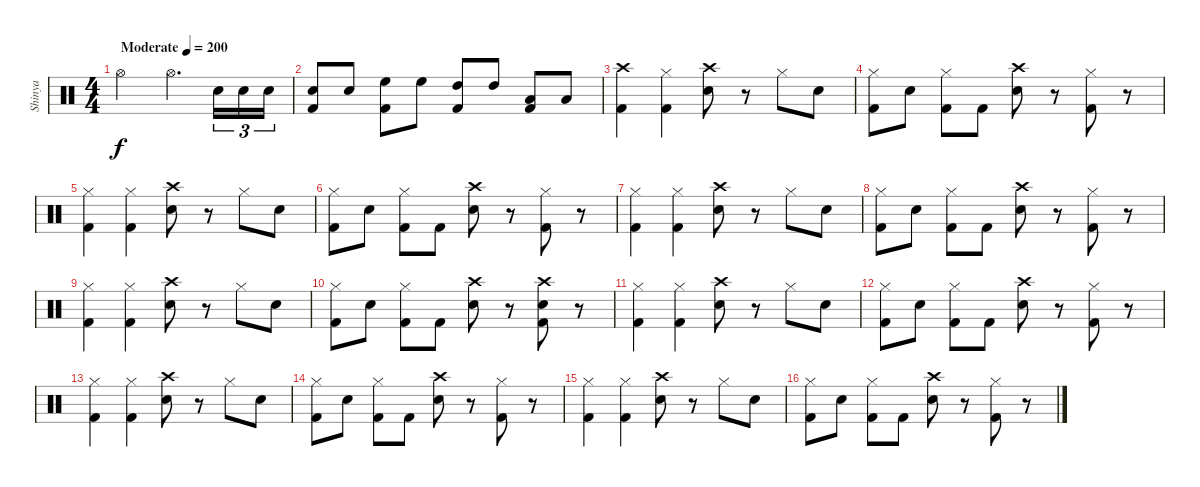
\track ("Shinya" "Shinya") {instrument percussion}
\staff {score}
\articulation defaults
\ts (4 4)
\tempo (200 "Moderate")
\clef neutral
\ks c "Hi-Hat (open)".2{dy f} "Hi-Hat (open)".4{d} "Electric Snare (hit)".16{tu (3 2)} "Electric Snare (hit)".16{tu (3 2)} "Electric Snare (hit)".16{tu (3 2)}
|
("Electric Snare (hit)" "Kick (hit) 2").8 "Electric Snare (hit)".8 ("High Floor Tom (hit)" "Kick (hit) 2").8 "High Floor Tom (hit)".8 ("High Tom (hit)" "Kick (hit) 2").8 "High Tom (hit)".8 ("Low Tom (hit)" "Kick (hit) 2").8 "Low Tom (hit)".8 |
("Crash high (hit)" "Kick (hit) 2").4 ("Hi-Hat (closed)" "Kick (hit) 2").4 ("Crash high (hit)" "Electric Snare (hit)").8 r.8 "Hi-Hat (closed)".8 "Electric Snare (hit)".8 |
("Hi-Hat (closed)" "Kick (hit) 2").8 "Electric Snare (hit)".8 ("Hi-Hat (closed)" "Kick (hit) 2").8 "Kick (hit) 2".8 ("Crash high (hit)" "Electric Snare (hit)").8 r.8 ("Hi-Hat (closed)" "Kick (hit) 2").8 r.8 |
("Hi-Hat (closed)" "Kick (hit) 2").4 ("Hi-Hat (closed)" "Kick (hit) 2").4 ("Crash high (hit)" "Electric Snare (hit)").8 r.8 "Hi-Hat (closed)".8 "Electric Snare (hit)".8 |
("Hi-Hat (closed)" "Kick (hit) 2").8 "Electric Snare (hit)".8 ("Hi-Hat (closed)" "Kick (hit) 2").8 "Kick (hit) 2".8 ("Crash high (hit)" "Electric Snare (hit)").8 r.8 ("Hi-Hat (closed)" "Kick (hit) 2").8 r.8 |
("Hi-Hat (closed)" "Kick (hit) 2").4 ("Hi-Hat (closed)" "Kick (hit) 2").4 ("Crash high (hit)" "Electric Snare (hit)").8 r.8 "Hi-Hat (closed)".8 "Electric Snare (hit)".8 |
("Hi-Hat (closed)" "Kick (hit) 2").8 "Electric Snare (hit)".8 ("Hi-Hat (closed)" "Kick (hit) 2").8 "Kick (hit) 2".8 ("Crash high (hit)" "Electric Snare (hit)").8 r.8 ("Hi-Hat (closed)" "Kick (hit) 2").8 r.8 |
("Hi-Hat (closed)" "Kick (hit) 2").4 ("Hi-Hat (closed)" "Kick (hit) 2").4 ("Crash high (hit)" "Electric Snare (hit)").8 r.8 "Hi-Hat (closed)".8 "Electric Snare (hit)".8 |
("Hi-Hat (closed)" "Kick (hit) 2").8 "Electric Snare (hit)".8 ("Hi-Hat (closed)" "Kick (hit) 2").8 "Kick (hit) 2".8 ("Crash high (hit)" "Electric Snare (hit)").8 r.8 ("Crash high (hit)" "Electric Snare (hit)" "Kick (hit) 2").8 r.8 |
("Hi-Hat (closed)" "Kick (hit) 2").4 ("Hi-Hat (closed)" "Kick (hit) 2").4 ("Crash high (hit)" "Electric Snare (hit)").8 r.8 "Hi-Hat (closed)".8 "Electric Snare (hit)".8 |
("Hi-Hat (closed)" "Kick (hit) 2").8 "Electric Snare (hit)".8 ("Hi-Hat (closed)" "Kick (hit) 2").8 "Kick (hit) 2".8 ("Crash high (hit)" "Electric Snare (hit)").8 r.8 ("Hi-Hat (closed)" "Kick (hit) 2").8 r.8 |
("Hi-Hat (closed)" "Kick (hit) 2").4 ("Hi-Hat (closed)" "Kick (hit) 2").4 ("Crash high (hit)" "Electric Snare (hit)").8 r.8 "Hi-Hat (closed)".8 "Electric Snare (hit)".8 |
("Hi-Hat (closed)" "Kick (hit) 2").8 "Electric Snare (hit)".8 ("Hi-Hat (closed)" "Kick (hit) 2").8 "Kick (hit) 2".8 ("Crash high (hit)" "Electric Snare (hit)").8 r.8 ("Hi-Hat (closed)" "Kick (hit) 2").8 r.8 |
("Hi-Hat (closed)" "Kick (hit) 2").4 ("Hi-Hat (closed)" "Kick (hit) 2").4 ("Crash high (hit)" "Electric Snare (hit)").8 r.8 "Hi-Hat (closed)".8 "Electric Snare (hit)".8 |
("Hi-Hat (closed)" "Kick (hit) 2").8 "Electric Snare (hit)".8 ("Hi-Hat (closed)" "Kick (hit) 2").8 "Kick (hit) 2".8 ("Crash high (hit)" "Electric Snare (hit)").8 r.8 ("Hi-Hat (closed)" "Kick (hit) 2").8 r.8
